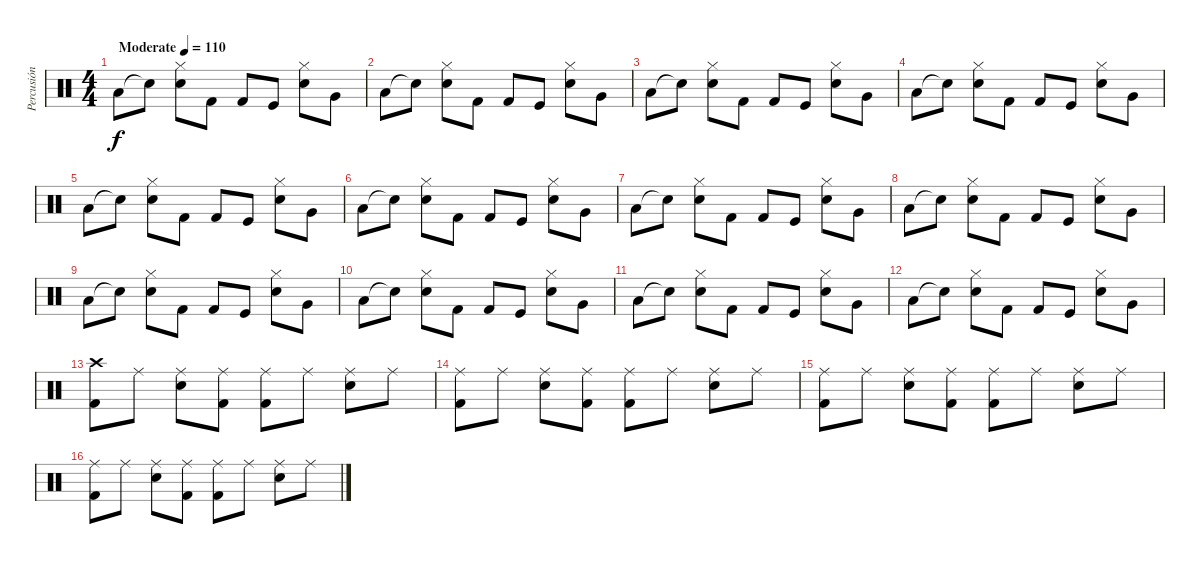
\track ("Percusión" "Percusión") {instrument percussion}
\staff {score}
\articulation defaults
\ts (4 4)
\tempo (110 "Moderate")
\clef neutral
\ks c "Low Floor Tom (hit)".8{dy f} "Snare (hit)"{t}.8
("Snare (hit) 2" "Hi-Hat (closed)").8 "Kick (hit) 2".8 "Kick (hit) 2".8 "Kick (hit)".8 ("Snare (hit) 2" "Hi-Hat (closed)").8 "Very Low Tom (hit)".8 |
"Low Floor Tom (hit)".8 "Snare (hit)"{t}.8 ("Snare (hit) 2" "Hi-Hat (closed)").8 "Kick (hit) 2".8 "Kick (hit) 2".8 "Kick (hit)".8 ("Snare (hit) 2" "Hi-Hat (closed)").8 "Very Low Tom (hit)".8 |
"Low Floor Tom (hit)".8 "Snare (hit)"{t}.8 ("Snare (hit) 2" "Hi-Hat (closed)").8 "Kick (hit) 2".8 "Kick (hit) 2".8 "Kick (hit)".8 ("Snare (hit) 2" "Hi-Hat (closed)").8 "Very Low Tom (hit)".8 |
"Low Floor Tom (hit)".8 "Snare (hit)"{t}.8 ("Snare (hit) 2" "Hi-Hat (closed)").8 "Kick (hit) 2".8 "Kick (hit) 2".8 "Kick (hit)".8 ("Snare (hit) 2" "Hi-Hat (closed)").8 "Very Low Tom (hit)".8 |
"Low Floor Tom (hit)".8 "Snare (hit)"{t}.8 ("Snare (hit) 2" "Hi-Hat (closed)").8 "Kick (hit) 2".8 "Kick (hit) 2".8 "Kick (hit)".8 ("Snare (hit) 2" "Hi-Hat (closed)").8 "Very Low Tom (hit)".8 |
"Low Floor Tom (hit)".8 "Snare (hit)"{t}.8 ("Snare (hit) 2" "Hi-Hat (closed)").8 "Kick (hit) 2".8 "Kick (hit) 2".8 "Kick (hit)".8 ("Snare (hit) 2" "Hi-Hat (closed)").8 "Very Low Tom (hit)".8 |
"Low Floor Tom (hit)".8 "Snare (hit)"{t}.8 ("Snare (hit) 2" "Hi-Hat (closed)").8 "Kick (hit) 2".8 "Kick (hit) 2".8 "Kick (hit)".8 ("Snare (hit) 2" "Hi-Hat (closed)").8 "Very Low Tom (hit)".8 |
"Low Floor Tom (hit)".8 "Snare (hit)"{t}.8 ("Snare (hit) 2" "Hi-Hat (closed)").8 "Kick (hit) 2".8 "Kick (hit) 2".8 "Kick (hit)".8 ("Snare (hit) 2" "Hi-Hat (closed)").8 "Very Low Tom (hit)".8 |
"Low Floor Tom (hit)".8 "Snare (hit)"{t}.8 ("Snare (hit) 2" "Hi-Hat (closed)").8 "Kick (hit) 2".8 "Kick (hit) 2".8 "Kick (hit)".8 ("Snare (hit) 2" "Hi-Hat (closed)").8 "Very Low Tom (hit)".8 |
"Low Floor Tom (hit)".8 "Snare (hit)"{t}.8 ("Snare (hit) 2" "Hi-Hat (closed)").8 "Kick (hit) 2".8 "Kick (hit) 2".8 "Kick (hit)".8 ("Snare (hit) 2" "Hi-Hat (closed)").8 "Very Low Tom (hit)".8 |
"Low Floor Tom (hit)".8 "Snare (hit)"{t}.8 ("Snare (hit) 2" "Hi-Hat (closed)").8 "Kick (hit) 2".8 "Kick (hit) 2".8 "Kick (hit)".8 ("Snare (hit) 2" "Hi-Hat (closed)").8 "Very Low Tom (hit)".8 |
"Low Floor Tom (hit)".8 "Snare (hit)"{t}.8 ("Snare (hit) 2" "Hi-Hat (closed)").8 "Kick (hit) 2".8 "Kick (hit) 2".8 "Kick (hit)".8 ("Snare (hit) 2" "Hi-Hat (closed)").8 "Very Low Tom (hit)".8 |
("Crash high (hit)" "Kick (hit) 2").8 "Ride (middle)".8 ("Ride (middle)" "Snare (hit) 2").8 ("Ride (middle)" "Kick (hit) 2").8 ("Ride (middle)" "Kick (hit) 2").8 "Ride (middle)".8 ("Ride (middle)" "Snare (hit) 2").8 "Ride (middle)".8 |
("Ride (middle)" "Kick (hit) 2").8 "Ride (middle)".8 ("Ride (middle)" "Snare (hit) 2").8 ("Ride (middle)" "Kick (hit) 2").8 ("Ride (middle)" "Kick (hit) 2").8 "Ride (middle)".8 ("Ride (middle)" "Snare (hit) 2").8 "Ride (middle)".8 |
("Ride (middle)" "Kick (hit) 2").8 "Ride (middle)".8 ("Ride (middle)" "Snare (hit) 2").8 ("Ride (middle)" "Kick (hit) 2").8 ("Ride (middle)" "Kick (hit) 2").8 "Ride (middle)".8 ("Ride (middle)" "Snare (hit) 2").8 "Ride (middle)".8 |
("Ride (middle)" "Kick (hit) 2").8 "Ride (middle)".8 ("Ride (middle)" "Snare (hit) 2").8 ("Ride (middle)" "Kick (hit) 2").8 ("Ride (middle)" "Kick (hit) 2").8 "Ride (middle)".8 ("Ride (middle)" "Snare (hit) 2").8 "Ride (middle)".8
